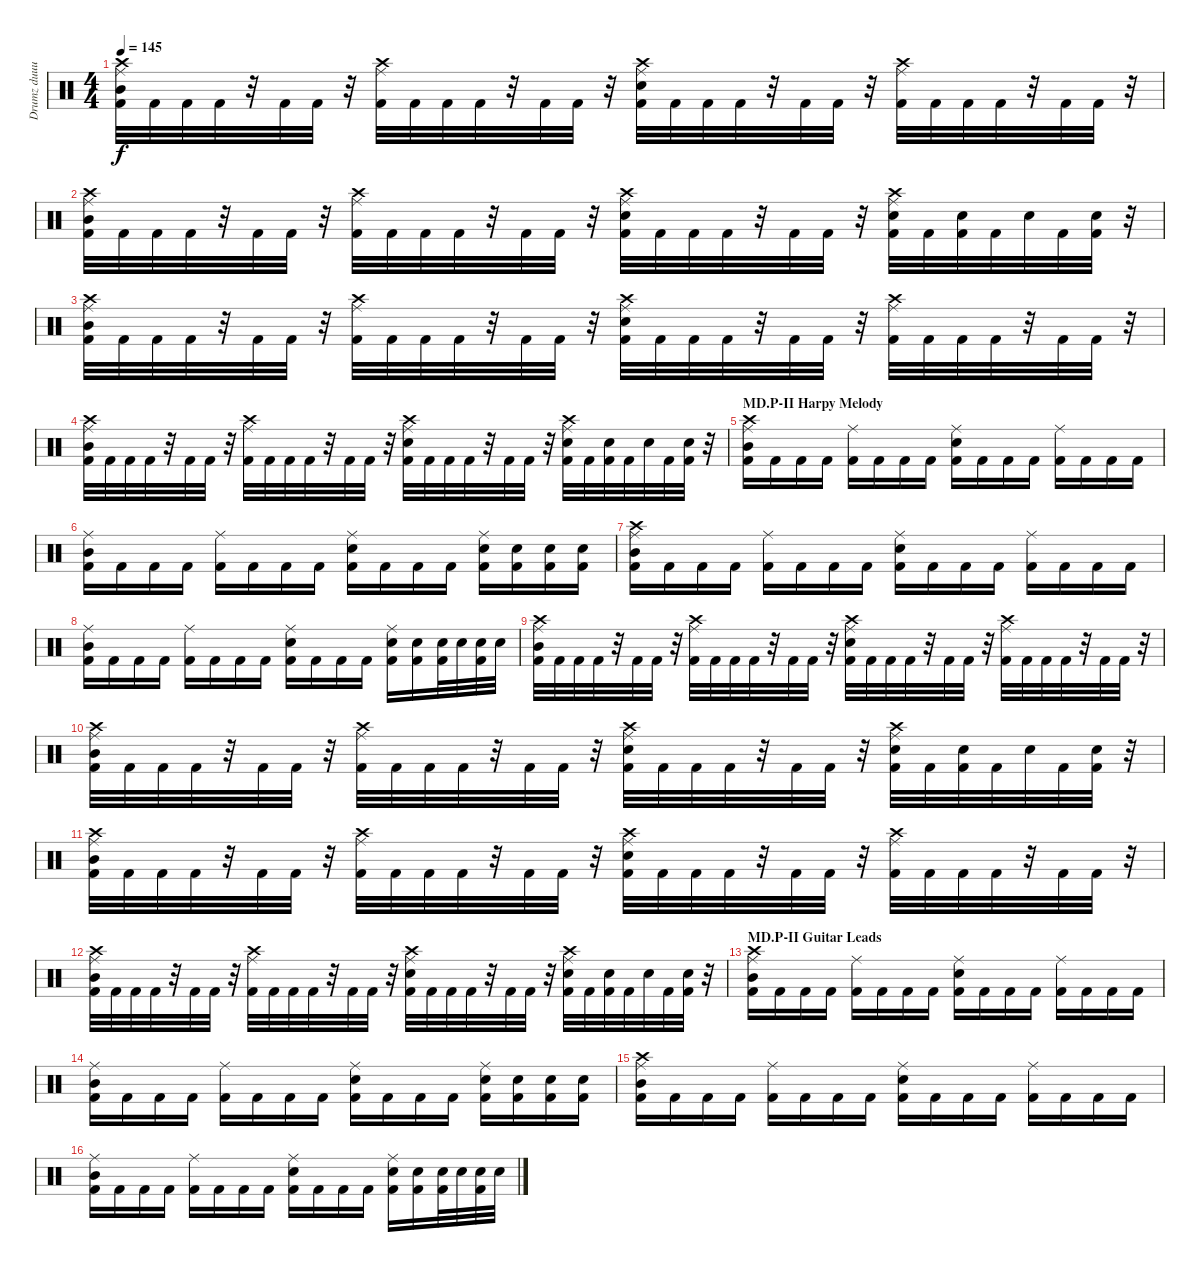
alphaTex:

\track ("Drumz duuuuude" "Drumz duuu") {instrument percussion}
\staff {score}
\articulation defaults
\ts (4 4)
\tempo 145
\clef neutral
\ks c
("Crash high (hit)" "Ride (middle)" "Kick (hit) 2" "Mid Tom (hit)").32{dy f} "Kick (hit) 2".32 "Kick (hit) 2".32 "Kick (hit) 2".32 r.32 "Kick (hit) 2".32 "Kick (hit) 2".32 r.32 ("Crash high (hit)" "Ride (middle)" "Kick (hit) 2").32 "Kick (hit) 2".32 "Kick (hit) 2".32 "Kick (hit) 2".32 r.32 "Kick (hit) 2".32 "Kick (hit) 2".32 r.32 ("Crash high (hit)" "Ride (middle)" "Kick (hit) 2" "Electric Snare (hit)").32 "Kick (hit) 2".32 "Kick (hit) 2".32 "Kick (hit) 2".32 r.32 "Kick (hit) 2".32 "Kick (hit) 2".32 r.32 ("Crash high (hit)" "Ride (middle)" "Kick (hit) 2").32 "Kick (hit) 2".32 "Kick (hit) 2".32 "Kick (hit) 2".32 r.32 "Kick (hit) 2".32 "Kick (hit) 2".32 r.32 |
("Crash high (hit)" "Ride (middle)" "Kick (hit) 2" "Mid Tom (hit)").32 "Kick (hit) 2".32 "Kick (hit) 2".32 "Kick (hit) 2".32 r.32 "Kick (hit) 2".32 "Kick (hit) 2".32 r.32 ("Crash high (hit)" "Ride (middle)" "Kick (hit) 2").32 "Kick (hit) 2".32 "Kick (hit) 2".32 "Kick (hit) 2".32 r.32 "Kick (hit) 2".32 "Kick (hit) 2".32 r.32 ("Crash high (hit)" "Ride (middle)" "Kick (hit) 2" "Electric Snare (hit)").32 "Kick (hit) 2".32 "Kick (hit) 2".32 "Kick (hit) 2".32 r.32 "Kick (hit) 2".32 "Kick (hit) 2".32 r.32 ("Crash high (hit)" "Ride (middle)" "Kick (hit) 2" "Electric Snare (hit)").32 "Kick (hit) 2".32 ("Kick (hit) 2" "Electric Snare (hit)").32 "Kick (hit) 2".32 "Electric Snare (hit)".32 "Kick (hit) 2".32 ("Kick (hit) 2" "Electric Snare (hit)").32 r.32 |
("Crash high (hit)" "Ride (middle)" "Kick (hit) 2" "Mid Tom (hit)").32 "Kick (hit) 2".32 "Kick (hit) 2".32 "Kick (hit) 2".32 r.32 "Kick (hit) 2".32 "Kick (hit) 2".32 r.32 ("Crash high (hit)" "Ride (middle)" "Kick (hit) 2").32 "Kick (hit) 2".32 "Kick (hit) 2".32 "Kick (hit) 2".32 r.32 "Kick (hit) 2".32 "Kick (hit) 2".32 r.32 ("Crash high (hit)" "Ride (middle)" "Kick (hit) 2" "Electric Snare (hit)").32 "Kick (hit) 2".32 "Kick (hit) 2".32 "Kick (hit) 2".32 r.32 "Kick (hit) 2".32 "Kick (hit) 2".32 r.32 ("Crash high (hit)" "Ride (middle)" "Kick (hit) 2").32 "Kick (hit) 2".32 "Kick (hit) 2".32 "Kick (hit) 2".32 r.32 "Kick (hit) 2".32 "Kick (hit) 2".32 r.32 |
("Crash high (hit)" "Ride (middle)" "Kick (hit) 2" "Mid Tom (hit)").32 "Kick (hit) 2".32 "Kick (hit) 2".32 "Kick (hit) 2".32 r.32 "Kick (hit) 2".32 "Kick (hit) 2".32 r.32 ("Crash high (hit)" "Ride (middle)" "Kick (hit) 2").32 "Kick (hit) 2".32 "Kick (hit) 2".32 "Kick (hit) 2".32 r.32 "Kick (hit) 2".32 "Kick (hit) 2".32 r.32 ("Crash high (hit)" "Ride (middle)" "Kick (hit) 2" "Electric Snare (hit)").32 "Kick (hit) 2".32 "Kick (hit) 2".32 "Kick (hit) 2".32 r.32 "Kick (hit) 2".32 "Kick (hit) 2".32 r.32 ("Crash high (hit)" "Ride (middle)" "Kick (hit) 2" "Electric Snare (hit)").32 "Kick (hit) 2".32 ("Kick (hit) 2" "Electric Snare (hit)").32 "Kick (hit) 2".32 "Electric Snare (hit)".32 "Kick (hit) 2".32 ("Kick (hit) 2" "Electric Snare (hit)").32 r.32 |
\section ("" "MD.P-II Harpy Melody")
("Crash high (hit)" "Ride (middle)" "Kick (hit) 2" "Mid Tom (hit)").16 "Kick (hit) 2".16 "Kick (hit) 2".16 "Kick (hit) 2".16 ("Ride (middle)" "Kick (hit) 2").16 "Kick (hit) 2".16 "Kick (hit) 2".16 "Kick (hit) 2".16 ("Ride (middle)" "Kick (hit) 2" "Electric Snare (hit)").16 "Kick (hit) 2".16 "Kick (hit) 2".16 "Kick (hit) 2".16 ("Ride (middle)" "Kick (hit) 2").16 "Kick (hit) 2".16 "Kick (hit) 2".16 "Kick (hit) 2".16 |
("Ride (middle)" "Kick (hit) 2" "Mid Tom (hit)").16 "Kick (hit) 2".16 "Kick (hit) 2".16 "Kick (hit) 2".16 ("Ride (middle)" "Kick (hit) 2").16 "Kick (hit) 2".16 "Kick (hit) 2".16 "Kick (hit) 2".16 ("Ride (middle)" "Kick (hit) 2" "Electric Snare (hit)").16 "Kick (hit) 2".16 "Kick (hit) 2".16 "Kick (hit) 2".16 ("Ride (middle)" "Kick (hit) 2" "Electric Snare (hit)").16 ("Kick (hit) 2" "Electric Snare (hit)").16 ("Kick (hit) 2" "Electric Snare (hit)").16 ("Kick (hit) 2" "Electric Snare (hit)").16 |
("Crash high (hit)" "Ride (middle)" "Kick (hit) 2" "Mid Tom (hit)").16 "Kick (hit) 2".16 "Kick (hit) 2".16 "Kick (hit) 2".16 ("Ride (middle)" "Kick (hit) 2").16 "Kick (hit) 2".16 "Kick (hit) 2".16 "Kick (hit) 2".16 ("Ride (middle)" "Kick (hit) 2" "Electric Snare (hit)").16 "Kick (hit) 2".16 "Kick (hit) 2".16 "Kick (hit) 2".16 ("Ride (middle)" "Kick (hit) 2").16 "Kick (hit) 2".16 "Kick (hit) 2".16 "Kick (hit) 2".16 |
("Ride (middle)" "Kick (hit) 2" "Mid Tom (hit)").16 "Kick (hit) 2".16 "Kick (hit) 2".16 "Kick (hit) 2".16 ("Ride (middle)" "Kick (hit) 2").16 "Kick (hit) 2".16 "Kick (hit) 2".16 "Kick (hit) 2".16 ("Ride (middle)" "Kick (hit) 2" "Electric Snare (hit)").16 "Kick (hit) 2".16 "Kick (hit) 2".16 "Kick (hit) 2".16 ("Ride (middle)" "Kick (hit) 2" "Electric Snare (hit)").16 ("Kick (hit) 2" "Electric Snare (hit)").16 ("Kick (hit) 2" "Electric Snare (hit)").32 "Electric Snare (hit)".32 ("Kick (hit) 2" "Electric Snare (hit)").32 "Electric Snare (hit)".32 |
("Crash high (hit)" "Ride (middle)" "Kick (hit) 2" "Mid Tom (hit)").32 "Kick (hit) 2".32 "Kick (hit) 2".32 "Kick (hit) 2".32 r.32 "Kick (hit) 2".32 "Kick (hit) 2".32 r.32 ("Crash high (hit)" "Ride (middle)" "Kick (hit) 2").32 "Kick (hit) 2".32 "Kick (hit) 2".32 "Kick (hit) 2".32 r.32 "Kick (hit) 2".32 "Kick (hit) 2".32 r.32 ("Crash high (hit)" "Ride (middle)" "Kick (hit) 2" "Electric Snare (hit)").32 "Kick (hit) 2".32 "Kick (hit) 2".32 "Kick (hit) 2".32 r.32 "Kick (hit) 2".32 "Kick (hit) 2".32 r.32 ("Crash high (hit)" "Ride (middle)" "Kick (hit) 2").32 "Kick (hit) 2".32 "Kick (hit) 2".32 "Kick (hit) 2".32 r.32 "Kick (hit) 2".32 "Kick (hit) 2".32 r.32 |
("Crash high (hit)" "Ride (middle)" "Kick (hit) 2" "Mid Tom (hit)").32 "Kick (hit) 2".32 "Kick (hit) 2".32 "Kick (hit) 2".32 r.32 "Kick (hit) 2".32 "Kick (hit) 2".32 r.32 ("Crash high (hit)" "Ride (middle)" "Kick (hit) 2").32 "Kick (hit) 2".32 "Kick (hit) 2".32 "Kick (hit) 2".32 r.32 "Kick (hit) 2".32 "Kick (hit) 2".32 r.32 ("Crash high (hit)" "Ride (middle)" "Kick (hit) 2" "Electric Snare (hit)").32 "Kick (hit) 2".32 "Kick (hit) 2".32 "Kick (hit) 2".32 r.32 "Kick (hit) 2".32 "Kick (hit) 2".32 r.32 ("Crash high (hit)" "Ride (middle)" "Kick (hit) 2" "Electric Snare (hit)").32 "Kick (hit) 2".32 ("Kick (hit) 2" "Electric Snare (hit)").32 "Kick (hit) 2".32 "Electric Snare (hit)".32 "Kick (hit) 2".32 ("Kick (hit) 2" "Electric Snare (hit)").32 r.32 |
("Crash high (hit)" "Ride (middle)" "Kick (hit) 2" "Mid Tom (hit)").32 "Kick (hit) 2".32 "Kick (hit) 2".32 "Kick (hit) 2".32 r.32 "Kick (hit) 2".32 "Kick (hit) 2".32 r.32 ("Crash high (hit)" "Ride (middle)" "Kick (hit) 2").32 "Kick (hit) 2".32 "Kick (hit) 2".32 "Kick (hit) 2".32 r.32 "Kick (hit) 2".32 "Kick (hit) 2".32 r.32 ("Crash high (hit)" "Ride (middle)" "Kick (hit) 2" "Electric Snare (hit)").32 "Kick (hit) 2".32 "Kick (hit) 2".32 "Kick (hit) 2".32 r.32 "Kick (hit) 2".32 "Kick (hit) 2".32 r.32 ("Crash high (hit)" "Ride (middle)" "Kick (hit) 2").32 "Kick (hit) 2".32 "Kick (hit) 2".32 "Kick (hit) 2".32 r.32 "Kick (hit) 2".32 "Kick (hit) 2".32 r.32 |
("Crash high (hit)" "Ride (middle)" "Kick (hit) 2" "Mid Tom (hit)").32 "Kick (hit) 2".32 "Kick (hit) 2".32 "Kick (hit) 2".32 r.32 "Kick (hit) 2".32 "Kick (hit) 2".32 r.32 ("Crash high (hit)" "Ride (middle)" "Kick (hit) 2").32 "Kick (hit) 2".32 "Kick (hit) 2".32 "Kick (hit) 2".32 r.32 "Kick (hit) 2".32 "Kick (hit) 2".32 r.32 ("Crash high (hit)" "Ride (middle)" "Kick (hit) 2" "Electric Snare (hit)").32 "Kick (hit) 2".32 "Kick (hit) 2".32 "Kick (hit) 2".32 r.32 "Kick (hit) 2".32 "Kick (hit) 2".32 r.32 ("Crash high (hit)" "Ride (middle)" "Kick (hit) 2" "Electric Snare (hit)").32 "Kick (hit) 2".32 ("Kick (hit) 2" "Electric Snare (hit)").32 "Kick (hit) 2".32 "Electric Snare (hit)".32 "Kick (hit) 2".32 ("Kick (hit) 2" "Electric Snare (hit)").32 r.32 |
\section ("" "MD.P-II Guitar Leads")
("Crash high (hit)" "Ride (middle)" "Kick (hit) 2" "Mid Tom (hit)").16 "Kick (hit) 2".16 "Kick (hit) 2".16 "Kick (hit) 2".16 ("Ride (middle)" "Kick (hit) 2").16 "Kick (hit) 2".16 "Kick (hit) 2".16 "Kick (hit) 2".16 ("Ride (middle)" "Kick (hit) 2" "Electric Snare (hit)").16 "Kick (hit) 2".16 "Kick (hit) 2".16 "Kick (hit) 2".16 ("Ride (middle)" "Kick (hit) 2").16 "Kick (hit) 2".16 "Kick (hit) 2".16 "Kick (hit) 2".16 |
("Ride (middle)" "Kick (hit) 2" "Mid Tom (hit)").16 "Kick (hit) 2".16 "Kick (hit) 2".16 "Kick (hit) 2".16 ("Ride (middle)" "Kick (hit) 2").16 "Kick (hit) 2".16 "Kick (hit) 2".16 "Kick (hit) 2".16 ("Ride (middle)" "Kick (hit) 2" "Electric Snare (hit)").16 "Kick (hit) 2".16 "Kick (hit) 2".16 "Kick (hit) 2".16 ("Ride (middle)" "Kick (hit) 2" "Electric Snare (hit)").16 ("Kick (hit) 2" "Electric Snare (hit)").16 ("Kick (hit) 2" "Electric Snare (hit)").16 ("Kick (hit) 2" "Electric Snare (hit)").16 |
("Crash high (hit)" "Ride (middle)" "Kick (hit) 2" "Mid Tom (hit)").16 "Kick (hit) 2".16 "Kick (hit) 2".16 "Kick (hit) 2".16 ("Ride (middle)" "Kick (hit) 2").16 "Kick (hit) 2".16 "Kick (hit) 2".16 "Kick (hit) 2".16 ("Ride (middle)" "Kick (hit) 2" "Electric Snare (hit)").16 "Kick (hit) 2".16 "Kick (hit) 2".16 "Kick (hit) 2".16 ("Ride (middle)" "Kick (hit) 2").16 "Kick (hit) 2".16 "Kick (hit) 2".16 "Kick (hit) 2".16 |
("Ride (middle)" "Kick (hit) 2" "Mid Tom (hit)").16 "Kick (hit) 2".16 "Kick (hit) 2".16 "Kick (hit) 2".16 ("Ride (middle)" "Kick (hit) 2").16 "Kick (hit) 2".16 "Kick (hit) 2".16 "Kick (hit) 2".16 ("Ride (middle)" "Kick (hit) 2" "Electric Snare (hit)").16 "Kick (hit) 2".16 "Kick (hit) 2".16 "Kick (hit) 2".16 ("Ride (middle)" "Kick (hit) 2" "Electric Snare (hit)").16 ("Kick (hit) 2" "Electric Snare (hit)").16 ("Kick (hit) 2" "Electric Snare (hit)").32 "Electric Snare (hit)".32 ("Kick (hit) 2" "Electric Snare (hit)").32 "Electric Snare (hit)".32
